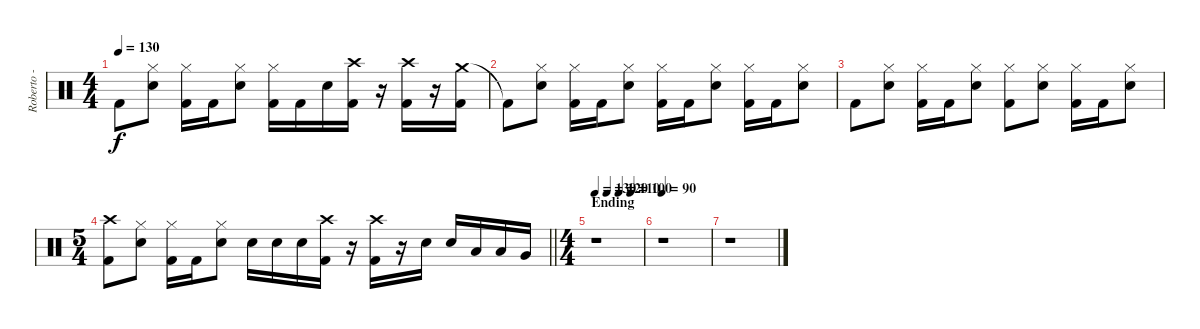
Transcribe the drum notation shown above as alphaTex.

\track ("Roberto - Bateria" "Roberto - ") {instrument percussion}
\staff {score}
\articulation defaults
\ts (4 4)
\tempo 130
\clef neutral
\ks c "Kick (hit) 2"{t}.8{dy f}
("Hi-Hat (closed)" "Snare (hit) 2").8 ("Hi-Hat (closed)" "Kick (hit) 2").16 "Kick (hit) 2".16 ("Hi-Hat (closed)" "Snare (hit) 2").8 ("Hi-Hat (closed)" "Kick (hit) 2").16 "Kick (hit) 2".16 "Snare (hit) 2".16 ("Crash high (hit)" "Kick (hit) 2").16 r.16 ("Crash high (hit)" "Kick (hit) 2").16 r.16 ("Crash medium (hit)" "Kick (hit) 2").16 |
"Kick (hit) 2"{t}.8 ("Hi-Hat (closed)" "Snare (hit) 2").8 ("Hi-Hat (closed)" "Kick (hit) 2").16 "Kick (hit) 2".16 ("Hi-Hat (closed)" "Snare (hit) 2").8 ("Hi-Hat (closed)" "Kick (hit) 2").16 "Kick (hit) 2".16 ("Hi-Hat (closed)" "Snare (hit) 2").8 ("Hi-Hat (closed)" "Kick (hit) 2").16 "Kick (hit) 2".16 ("Hi-Hat (closed)" "Snare (hit) 2").8 |
"Kick (hit) 2".8 ("Hi-Hat (closed)" "Snare (hit) 2").8 ("Hi-Hat (closed)" "Kick (hit) 2").16 "Kick (hit) 2".16 ("Hi-Hat (closed)" "Snare (hit) 2").8 ("Hi-Hat (closed)" "Kick (hit) 2").8 ("Hi-Hat (closed)" "Snare (hit) 2").8 ("Hi-Hat (closed)" "Kick (hit) 2").16 "Kick (hit) 2".16 ("Hi-Hat (closed)" "Snare (hit) 2").8 |
\ts (5 4)
\barLineRight lightlight
("Crash high (hit)" "Kick (hit) 2").8 ("Hi-Hat (closed)" "Snare (hit) 2").8 ("Hi-Hat (closed)" "Kick (hit) 2").16 "Kick (hit) 2".16 ("Hi-Hat (closed)" "Snare (hit) 2").8 "Snare (hit) 2".16 "Snare (hit) 2".16 "Snare (hit) 2".16 ("Crash high (hit)" "Kick (hit) 2").16 r.16 ("Crash high (hit)" "Kick (hit) 2").16 r.16 "Snare (hit) 2".16 "Snare (hit) 2".16 "Low Tom (hit)".16 "Low Tom (hit)".16 "Very Low Tom (hit)".16 |
\ts (4 4)
\section ("" "Ending")
\tempo 130
\tempo (120 0.25)
\tempo (110 0.5)
\tempo (100 0.75)
r.1 |
\tempo 90
r.1 |
r.1
